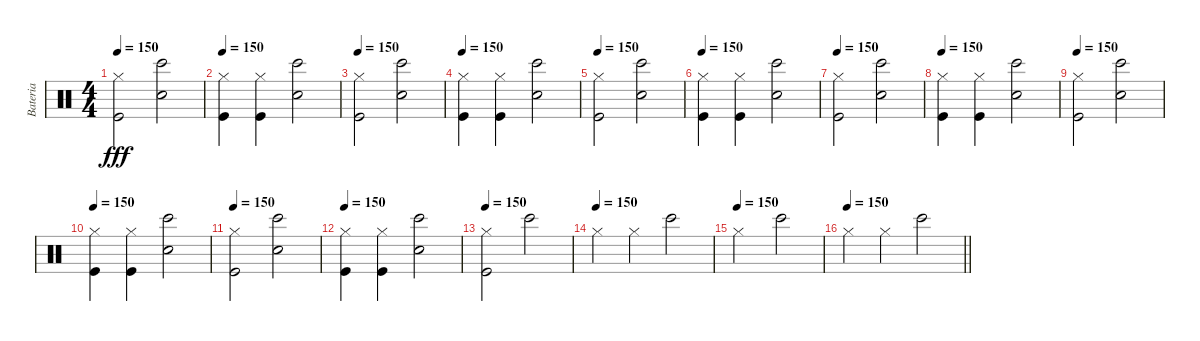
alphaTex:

\track ("Bateria" "Bateria") {instrument percussion}
\staff {score}
\articulation defaults
\ts (4 4)
\tempo 150
\clef neutral
\ks c
("Kick (hit)" "Hi-Hat (closed)").2{dy fff} ("Electric Snare (hit)" "Bongo High (hit)").2 |
\tempo 150
("Kick (hit)" "Hi-Hat (closed)").4 ("Kick (hit)" "Hi-Hat (closed)").4 ("Electric Snare (hit)" "Bongo High (hit)").2 |
\tempo 150
("Kick (hit)" "Hi-Hat (closed)").2 ("Electric Snare (hit)" "Bongo High (hit)").2 |
\tempo 150
("Kick (hit)" "Hi-Hat (closed)").4 ("Kick (hit)" "Hi-Hat (closed)").4 ("Electric Snare (hit)" "Bongo High (hit)").2 |
\tempo 150
("Kick (hit)" "Hi-Hat (closed)").2 ("Electric Snare (hit)" "Bongo High (hit)").2 |
\tempo 150
("Kick (hit)" "Hi-Hat (closed)").4 ("Kick (hit)" "Hi-Hat (closed)").4 ("Electric Snare (hit)" "Bongo High (hit)").2 |
\tempo 150
("Kick (hit)" "Hi-Hat (closed)").2 ("Electric Snare (hit)" "Bongo High (hit)").2 |
\tempo 150
("Kick (hit)" "Hi-Hat (closed)").4 ("Kick (hit)" "Hi-Hat (closed)").4 ("Electric Snare (hit)" "Bongo High (hit)").2 |
\tempo 150
("Kick (hit)" "Hi-Hat (closed)").2 ("Electric Snare (hit)" "Bongo High (hit)").2 |
\tempo 150
("Kick (hit)" "Hi-Hat (closed)").4 ("Kick (hit)" "Hi-Hat (closed)").4 ("Electric Snare (hit)" "Bongo High (hit)").2 |
\tempo 150
("Kick (hit)" "Hi-Hat (closed)").2 ("Electric Snare (hit)" "Bongo High (hit)").2 |
\tempo 150
("Kick (hit)" "Hi-Hat (closed)").4 ("Kick (hit)" "Hi-Hat (closed)").4 ("Electric Snare (hit)" "Bongo High (hit)").2 |
\tempo 150
("Kick (hit)" "Hi-Hat (closed)").2 "Bongo High (hit)".2 |
\tempo (150)
"Hi-Hat (closed)".4 "Hi-Hat (closed)".4 "Bongo High (hit)".2 |
\tempo (150)
"Hi-Hat (closed)".2 "Bongo High (hit)".2 |
\tempo 150
\barLineRight lightlight "Hi-Hat (closed)".4 "Hi-Hat (closed)".4 "Bongo High (hit)".2
